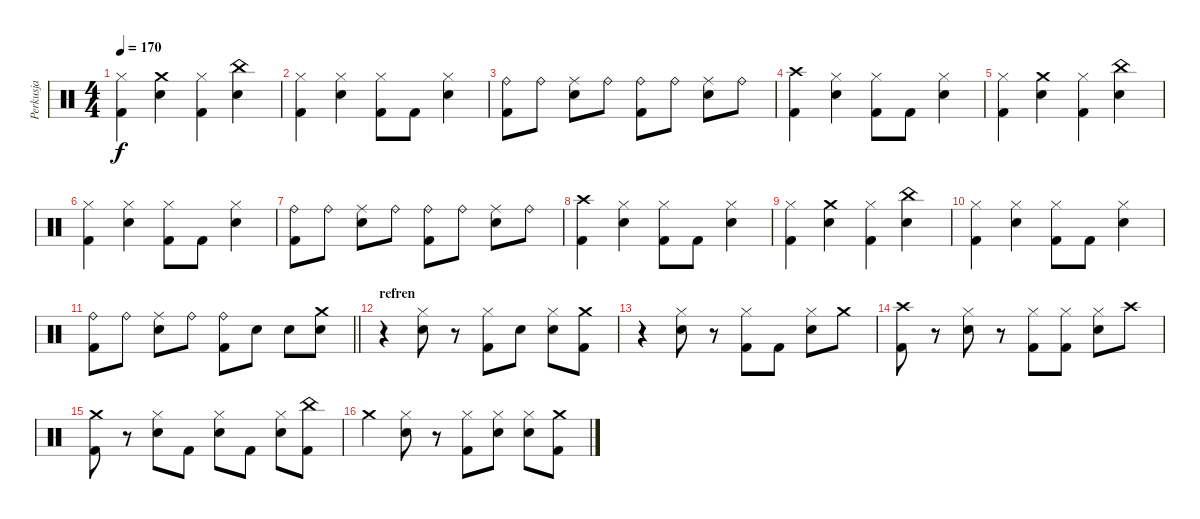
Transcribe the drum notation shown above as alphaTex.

\track ("Perkusja" "Perkusja") {instrument percussion}
\staff {score}
\articulation defaults
\ts (4 4)
\tempo 170
\clef neutral
\ks c
("Hi-Hat (closed)" "Kick (hit) 2").4{dy f} ("Crash medium (hit)" "Snare (hit) 2").4 ("Hi-Hat (closed)" "Kick (hit) 2").4 ("China (hit)" "Snare (hit) 2").4 |
("Hi-Hat (closed)" "Kick (hit) 2").4 ("Hi-Hat (closed)" "Snare (hit) 2").4 ("Hi-Hat (closed)" "Kick (hit) 2").8 "Kick (hit) 2".8 ("Hi-Hat (closed)" "Snare (hit) 2").4 |
("Ride (bell)" "Kick (hit) 2").8 "Ride (bell)".8 ("Ride (middle)" "Snare (hit) 2").8 "Ride (bell)".8 ("Ride (bell)" "Kick (hit) 2").8 "Ride (bell)".8 ("Ride (middle)" "Snare (hit) 2").8 "Ride (bell)".8 |
("Crash high (hit)" "Kick (hit) 2").4 ("Hi-Hat (closed)" "Snare (hit) 2").4 ("Hi-Hat (closed)" "Kick (hit) 2").8 "Kick (hit) 2".8 ("Hi-Hat (closed)" "Snare (hit) 2").4 |
("Hi-Hat (closed)" "Kick (hit) 2").4 ("Crash medium (hit)" "Snare (hit) 2").4 ("Hi-Hat (closed)" "Kick (hit) 2").4 ("China (hit)" "Snare (hit) 2").4 |
("Hi-Hat (closed)" "Kick (hit) 2").4 ("Hi-Hat (closed)" "Snare (hit) 2").4 ("Hi-Hat (closed)" "Kick (hit) 2").8 "Kick (hit) 2".8 ("Hi-Hat (closed)" "Snare (hit) 2").4 |
("Ride (bell)" "Kick (hit) 2").8 "Ride (bell)".8 ("Ride (middle)" "Snare (hit) 2").8 "Ride (bell)".8 ("Ride (bell)" "Kick (hit) 2").8 "Ride (bell)".8 ("Ride (middle)" "Snare (hit) 2").8 "Ride (bell)".8 |
("Crash high (hit)" "Kick (hit) 2").4 ("Hi-Hat (closed)" "Snare (hit) 2").4 ("Hi-Hat (closed)" "Kick (hit) 2").8 "Kick (hit) 2".8 ("Hi-Hat (closed)" "Snare (hit) 2").4 |
("Hi-Hat (closed)" "Kick (hit) 2").4 ("Crash medium (hit)" "Snare (hit) 2").4 ("Hi-Hat (closed)" "Kick (hit) 2").4 ("China (hit)" "Snare (hit) 2").4 |
("Hi-Hat (closed)" "Kick (hit) 2").4 ("Hi-Hat (closed)" "Snare (hit) 2").4 ("Hi-Hat (closed)" "Kick (hit) 2").8 "Kick (hit) 2".8 ("Hi-Hat (closed)" "Snare (hit) 2").4 |
\barLineRight lightlight
("Ride (bell)" "Kick (hit) 2").8 "Ride (bell)".8 ("Ride (middle)" "Snare (hit) 2").8 "Ride (bell)".8 ("Ride (bell)" "Kick (hit) 2").8 "Snare (hit) 2".8 "Snare (hit) 2".8 ("Crash medium (hit)" "Snare (hit) 2").8 |
\section ("" "refren")
r.4 ("Hi-Hat (closed)" "Snare (hit) 2").8 r.8 ("Hi-Hat (closed)" "Kick (hit) 2").8 "Snare (hit) 2".8 ("Hi-Hat (closed)" "Snare (hit) 2").8 ("Crash medium (hit)" "Kick (hit) 2").8 |
r.4 ("Hi-Hat (closed)" "Snare (hit) 2").8 r.8 ("Hi-Hat (closed)" "Kick (hit) 2").8 "Kick (hit) 2".8 ("Hi-Hat (closed)" "Snare (hit) 2").8 "Crash medium (hit)".8 |
("Crash high (hit)" "Kick (hit) 2").8 r.8 ("Hi-Hat (closed)" "Snare (hit) 2").8 r.8 ("Hi-Hat (closed)" "Kick (hit) 2").8 ("Hi-Hat (closed)" "Kick (hit) 2").8 ("Hi-Hat (closed)" "Snare (hit) 2").8 "Crash high (hit)".8 |
("Crash medium (hit)" "Kick (hit) 2").8 r.8 ("Hi-Hat (closed)" "Snare (hit) 2").8 "Kick (hit) 2".8 ("Hi-Hat (closed)" "Snare (hit) 2").8 "Kick (hit) 2".8 ("Hi-Hat (closed)" "Snare (hit) 2").8 ("China (hit)" "Kick (hit) 2").8 |
"Crash medium (hit)".4 ("Hi-Hat (closed)" "Snare (hit) 2").8 r.8 ("Hi-Hat (closed)" "Kick (hit) 2").8 ("Hi-Hat (closed)" "Snare (hit) 2").8 ("Hi-Hat (closed)" "Snare (hit) 2").8 ("Crash medium (hit)" "Kick (hit) 2").8
